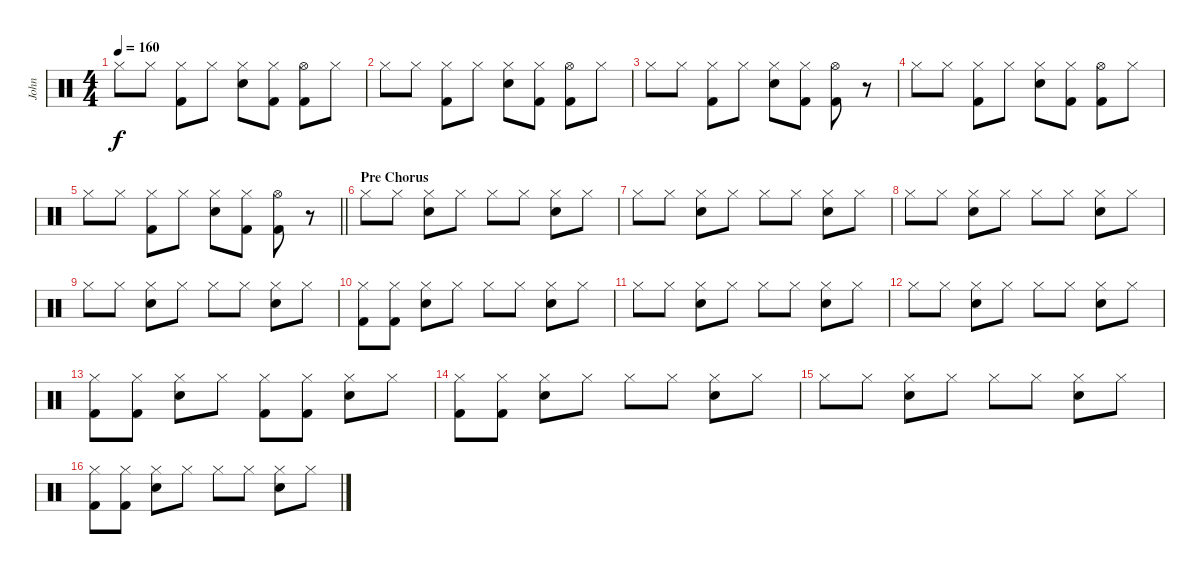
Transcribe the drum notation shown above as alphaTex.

\track ("John" "John") {instrument percussion}
\staff {score}
\articulation defaults
\ts (4 4)
\tempo 160
\clef neutral
\ks c "Hi-Hat (closed)".8{dy f} "Hi-Hat (closed)".8
("Hi-Hat (closed)" "Kick (hit) 2").8 "Hi-Hat (closed)".8 ("Hi-Hat (closed)" "Snare (hit) 2").8 ("Hi-Hat (closed)" "Kick (hit) 2").8 ("Hi-Hat (open)" "Kick (hit) 2").8 "Hi-Hat (closed)".8 |
"Hi-Hat (closed)".8 "Hi-Hat (closed)".8 ("Hi-Hat (closed)" "Kick (hit) 2").8 "Hi-Hat (closed)".8 ("Hi-Hat (closed)" "Snare (hit) 2").8 ("Hi-Hat (closed)" "Kick (hit) 2").8 ("Hi-Hat (open)" "Kick (hit) 2").8 "Hi-Hat (closed)".8 |
"Hi-Hat (closed)".8 "Hi-Hat (closed)".8 ("Hi-Hat (closed)" "Kick (hit) 2").8 "Hi-Hat (closed)".8 ("Hi-Hat (closed)" "Snare (hit) 2").8 ("Hi-Hat (closed)" "Kick (hit) 2").8 ("Hi-Hat (open)" "Kick (hit) 2").8 r.8 |
"Hi-Hat (closed)".8 "Hi-Hat (closed)".8 ("Hi-Hat (closed)" "Kick (hit) 2").8 "Hi-Hat (closed)".8 ("Hi-Hat (closed)" "Snare (hit) 2").8 ("Hi-Hat (closed)" "Kick (hit) 2").8 ("Hi-Hat (open)" "Kick (hit) 2").8 "Hi-Hat (closed)".8 |
\barLineRight lightlight "Hi-Hat (closed)".8 "Hi-Hat (closed)".8
("Hi-Hat (closed)" "Kick (hit) 2").8 "Hi-Hat (closed)".8 ("Hi-Hat (closed)" "Snare (hit) 2").8 ("Hi-Hat (closed)" "Kick (hit) 2").8 ("Hi-Hat (open)" "Kick (hit) 2").8 r.8 |
\section ("" "Pre Chorus")
"Hi-Hat (closed)".8 "Hi-Hat (closed)".8 ("Hi-Hat (closed)" "Snare (hit) 2").8 "Hi-Hat (closed)".8 "Hi-Hat (closed)".8 "Hi-Hat (closed)".8 ("Hi-Hat (closed)" "Snare (hit) 2").8 "Hi-Hat (closed)".8 |
"Hi-Hat (closed)".8 "Hi-Hat (closed)".8 ("Hi-Hat (closed)" "Snare (hit) 2").8 "Hi-Hat (closed)".8 "Hi-Hat (closed)".8 "Hi-Hat (closed)".8 ("Hi-Hat (closed)" "Snare (hit) 2").8 "Hi-Hat (closed)".8 |
"Hi-Hat (closed)".8 "Hi-Hat (closed)".8 ("Hi-Hat (closed)" "Snare (hit) 2").8 "Hi-Hat (closed)".8 "Hi-Hat (closed)".8 "Hi-Hat (closed)".8 ("Hi-Hat (closed)" "Snare (hit) 2").8 "Hi-Hat (closed)".8 |
"Hi-Hat (closed)".8 "Hi-Hat (closed)".8 ("Hi-Hat (closed)" "Snare (hit) 2").8 "Hi-Hat (closed)".8 "Hi-Hat (closed)".8 "Hi-Hat (closed)".8 ("Hi-Hat (closed)" "Snare (hit) 2").8 "Hi-Hat (closed)".8 |
("Hi-Hat (closed)" "Kick (hit) 2").8 ("Hi-Hat (closed)" "Kick (hit) 2").8 ("Hi-Hat (closed)" "Snare (hit) 2").8 "Hi-Hat (closed)".8 "Hi-Hat (closed)".8 "Hi-Hat (closed)".8 ("Hi-Hat (closed)" "Snare (hit) 2").8 "Hi-Hat (closed)".8 |
"Hi-Hat (closed)".8 "Hi-Hat (closed)".8 ("Hi-Hat (closed)" "Snare (hit) 2").8 "Hi-Hat (closed)".8 "Hi-Hat (closed)".8 "Hi-Hat (closed)".8 ("Hi-Hat (closed)" "Snare (hit) 2").8 "Hi-Hat (closed)".8 |
"Hi-Hat (closed)".8 "Hi-Hat (closed)".8 ("Hi-Hat (closed)" "Snare (hit) 2").8 "Hi-Hat (closed)".8 "Hi-Hat (closed)".8 "Hi-Hat (closed)".8 ("Hi-Hat (closed)" "Snare (hit) 2").8 "Hi-Hat (closed)".8 |
("Hi-Hat (closed)" "Kick (hit) 2").8 ("Hi-Hat (closed)" "Kick (hit) 2").8 ("Hi-Hat (closed)" "Snare (hit) 2").8 "Hi-Hat (closed)".8 ("Hi-Hat (closed)" "Kick (hit) 2").8 ("Hi-Hat (closed)" "Kick (hit) 2").8 ("Hi-Hat (closed)" "Snare (hit) 2").8 "Hi-Hat (closed)".8 |
("Hi-Hat (closed)" "Kick (hit) 2").8 ("Hi-Hat (closed)" "Kick (hit) 2").8 ("Hi-Hat (closed)" "Snare (hit) 2").8 "Hi-Hat (closed)".8 "Hi-Hat (closed)".8 "Hi-Hat (closed)".8 ("Hi-Hat (closed)" "Snare (hit) 2").8 "Hi-Hat (closed)".8 |
"Hi-Hat (closed)".8 "Hi-Hat (closed)".8 ("Hi-Hat (closed)" "Snare (hit) 2").8 "Hi-Hat (closed)".8 "Hi-Hat (closed)".8 "Hi-Hat (closed)".8 ("Hi-Hat (closed)" "Snare (hit) 2").8 "Hi-Hat (closed)".8 |
("Hi-Hat (closed)" "Kick (hit) 2").8 ("Hi-Hat (closed)" "Kick (hit) 2").8 ("Hi-Hat (closed)" "Snare (hit) 2").8 "Hi-Hat (closed)".8 "Hi-Hat (closed)".8 "Hi-Hat (closed)".8 ("Hi-Hat (closed)" "Snare (hit) 2").8 "Hi-Hat (closed)".8
